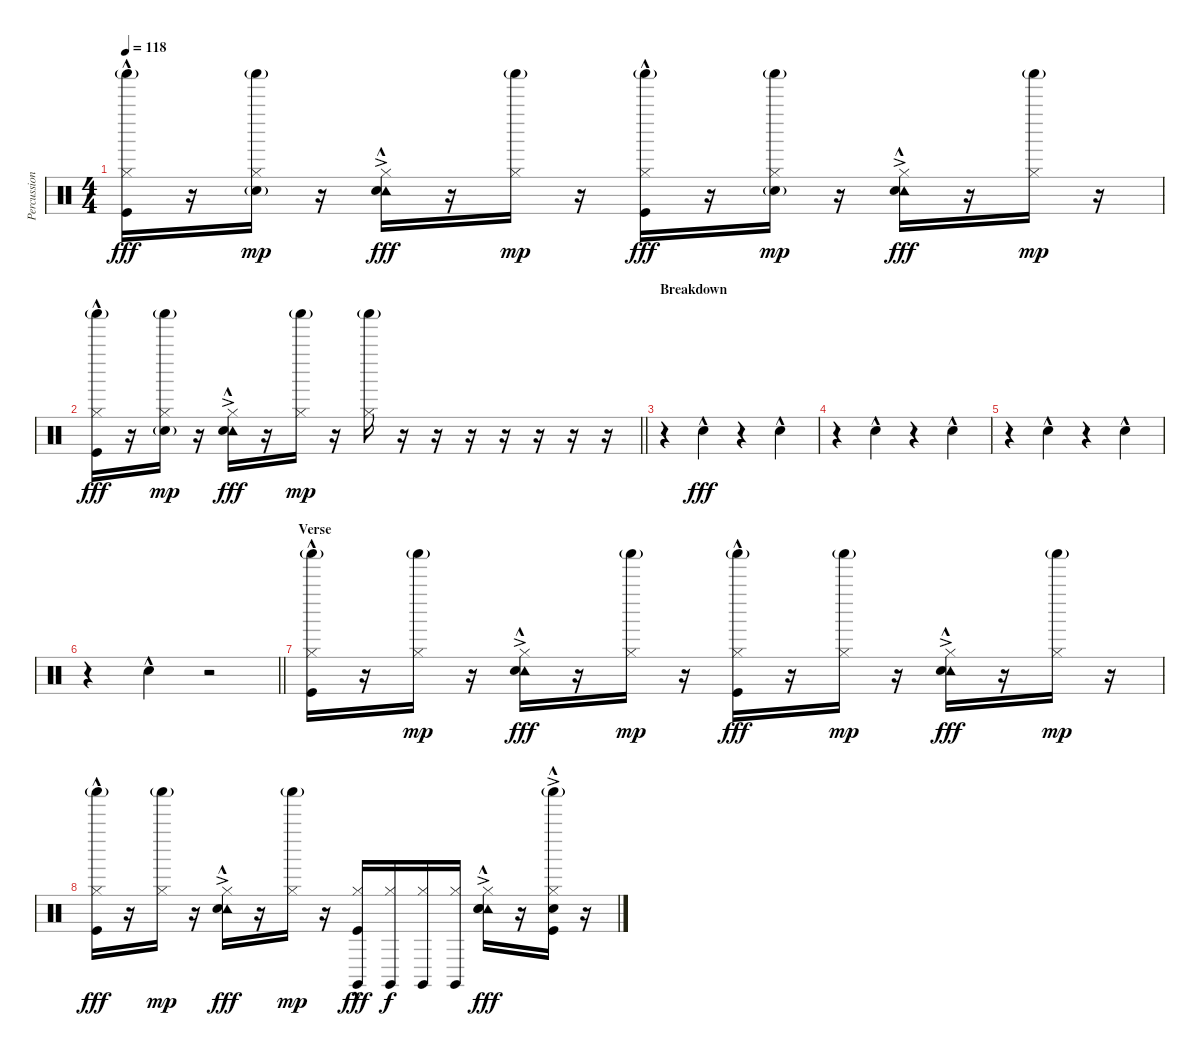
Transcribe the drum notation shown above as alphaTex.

\track ("Percussion" "Percussion") {instrument percussion}
\staff {score}
\articulation defaults
\ts (4 4)
\tempo 118
\clef neutral
\ks c
("Shaker (hit)"{g} "Hi-Hat (closed)" "Kick (hit)"{hac}).16{dy fff} r.16 ("Shaker (hit)"{g} "Hi-Hat (closed)" "Hand Clap (hit)"{g}).16{dy mp} r.16 ("Tambourine (hit)"{ac} "Hi-Hat (closed)" "Snare (hit) 2"{hac}).16{dy fff} r.16 ("Shaker (hit)"{g} "Hi-Hat (closed)").16{dy mp} r.16 ("Shaker (hit)"{g} "Hi-Hat (closed)" "Kick (hit)"{hac}).16{dy fff} r.16 ("Shaker (hit)"{g} "Hi-Hat (closed)" "Hand Clap (hit)"{g}).16{dy mp} r.16 ("Tambourine (hit)"{ac} "Hi-Hat (closed)" "Snare (hit) 2"{hac}).16{dy fff} r.16 ("Shaker (hit)"{g} "Hi-Hat (closed)").16{dy mp} r.16 |
\barLineRight lightlight
("Shaker (hit)"{g} "Hi-Hat (closed)" "Kick (hit)"{hac}).16{dy fff} r.16 ("Shaker (hit)"{g} "Hi-Hat (closed)" "Hand Clap (hit)"{g}).16{dy mp} r.16 ("Tambourine (hit)"{ac} "Hi-Hat (closed)" "Snare (hit) 2"{hac}).16{dy fff} r.16 ("Shaker (hit)"{g} "Hi-Hat (closed)").16{dy mp} r.16 ("Shaker (hit)"{g} "Hi-Hat (closed)").16 r.16 r.16 r.16 r.16 r.16 r.16 r.16 |
\section ("" "Breakdown")
r.4 "Hand Clap (hit)"{hac}.4{dy fff} r.4 "Hand Clap (hit)"{hac}.4 |
r.4 "Hand Clap (hit)"{hac}.4 r.4 "Hand Clap (hit)"{hac}.4 |
r.4 "Hand Clap (hit)"{hac}.4 r.4 "Hand Clap (hit)"{hac}.4 |
\barLineRight lightlight
r.4 "Hand Clap (hit)"{hac}.4 r.2 |
\section ("" "Verse")
("Shaker (hit)"{g} "Hi-Hat (closed)" "Kick (hit)"{hac}).16 r.16 ("Shaker (hit)"{g} "Hi-Hat (closed)").16{dy mp} r.16 ("Tambourine (hit)"{ac} "Hi-Hat (closed)" "Snare (hit) 2"{hac}).16{dy fff} r.16 ("Shaker (hit)"{g} "Hi-Hat (closed)").16{dy mp} r.16 ("Shaker (hit)"{g} "Hi-Hat (closed)" "Kick (hit)"{hac}).16{dy fff} r.16 ("Shaker (hit)"{g} "Hi-Hat (closed)").16{dy mp} r.16 ("Tambourine (hit)"{ac} "Hi-Hat (closed)" "Snare (hit) 2"{hac}).16{dy fff} r.16 ("Shaker (hit)"{g} "Hi-Hat (closed)").16{dy mp} r.16 |
("Shaker (hit)"{g} "Hi-Hat (closed)" "Kick (hit)"{hac}).16{dy fff} r.16 ("Shaker (hit)"{g} "Hi-Hat (closed)").16{dy mp} r.16 ("Tambourine (hit)"{ac} "Hi-Hat (closed)" "Snare (hit) 2"{hac}).16{dy fff} r.16 ("Shaker (hit)"{g} "Hi-Hat (closed)").16{dy mp} r.16 ("Claves (hit)" "Hi-Hat (closed)" "Kick (hit)"{hac}).16{dy fff} ("Claves (hit)" "Hi-Hat (closed)").16{dy f} ("Claves (hit)" "Hi-Hat (closed)").16 ("Claves (hit)" "Hi-Hat (closed)").16 ("Tambourine (hit)"{ac} "Hi-Hat (closed)" "Hand Clap (hit)"{ac} "Snare (hit) 2"{hac}).16{dy fff} r.16 ("Shaker (hit)"{g} "Hi-Hat (closed)" "Hand Clap (hit)"{ac} "Kick (hit)"{hac}).16 r.16
